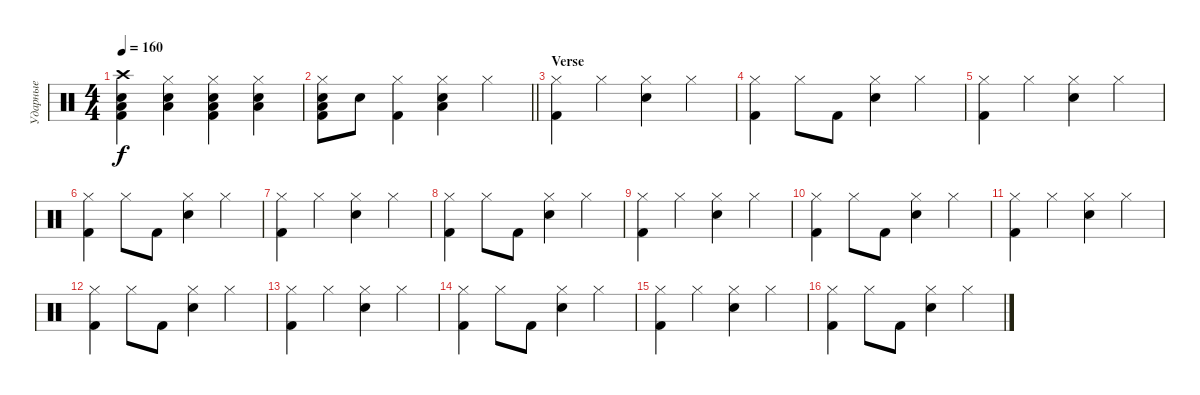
\track ("Ударные" "Ударные") {instrument percussion}
\staff {score}
\articulation defaults
\ts (4 4)
\tempo 160
\clef neutral
\ks c
("Crash high (hit)" "Kick (hit) 2" "Snare (hit) 2" "Low Floor Tom (hit)").4{dy f} ("Hi-Hat (closed)" "Snare (hit) 2" "Low Floor Tom (hit)").4 ("Hi-Hat (closed)" "Kick (hit) 2" "Snare (hit) 2" "Low Floor Tom (hit)").4 ("Hi-Hat (closed)" "Snare (hit) 2" "Low Floor Tom (hit)").4 |
\barLineRight lightlight
("Hi-Hat (closed)" "Kick (hit) 2" "Snare (hit) 2" "Low Floor Tom (hit)").8 "Snare (hit) 2".8 ("Hi-Hat (closed)" "Kick (hit) 2").4 ("Hi-Hat (closed)" "Snare (hit) 2" "Low Floor Tom (hit)").4 "Hi-Hat (closed)".4 |
\section ("" "Verse")
("Hi-Hat (closed)" "Kick (hit) 2").4 "Hi-Hat (closed)".4 ("Hi-Hat (closed)" "Snare (hit) 2").4 "Hi-Hat (closed)".4 |
("Hi-Hat (closed)" "Kick (hit) 2").4 "Hi-Hat (closed)".8 "Kick (hit) 2".8 ("Hi-Hat (closed)" "Snare (hit) 2").4 "Hi-Hat (closed)".4 |
("Hi-Hat (closed)" "Kick (hit) 2").4 "Hi-Hat (closed)".4 ("Hi-Hat (closed)" "Snare (hit) 2").4 "Hi-Hat (closed)".4 |
("Hi-Hat (closed)" "Kick (hit) 2").4 "Hi-Hat (closed)".8 "Kick (hit) 2".8 ("Hi-Hat (closed)" "Snare (hit) 2").4 "Hi-Hat (closed)".4 |
("Hi-Hat (closed)" "Kick (hit) 2").4 "Hi-Hat (closed)".4 ("Hi-Hat (closed)" "Snare (hit) 2").4 "Hi-Hat (closed)".4 |
("Hi-Hat (closed)" "Kick (hit) 2").4 "Hi-Hat (closed)".8 "Kick (hit) 2".8 ("Hi-Hat (closed)" "Snare (hit) 2").4 "Hi-Hat (closed)".4 |
("Hi-Hat (closed)" "Kick (hit) 2").4 "Hi-Hat (closed)".4 ("Hi-Hat (closed)" "Snare (hit) 2").4 "Hi-Hat (closed)".4 |
("Hi-Hat (closed)" "Kick (hit) 2").4 "Hi-Hat (closed)".8 "Kick (hit) 2".8 ("Hi-Hat (closed)" "Snare (hit) 2").4 "Hi-Hat (closed)".4 |
("Hi-Hat (closed)" "Kick (hit) 2").4 "Hi-Hat (closed)".4 ("Hi-Hat (closed)" "Snare (hit) 2").4 "Hi-Hat (closed)".4 |
("Hi-Hat (closed)" "Kick (hit) 2").4 "Hi-Hat (closed)".8 "Kick (hit) 2".8 ("Hi-Hat (closed)" "Snare (hit) 2").4 "Hi-Hat (closed)".4 |
("Hi-Hat (closed)" "Kick (hit) 2").4 "Hi-Hat (closed)".4 ("Hi-Hat (closed)" "Snare (hit) 2").4 "Hi-Hat (closed)".4 |
("Hi-Hat (closed)" "Kick (hit) 2").4 "Hi-Hat (closed)".8 "Kick (hit) 2".8 ("Hi-Hat (closed)" "Snare (hit) 2").4 "Hi-Hat (closed)".4 |
("Hi-Hat (closed)" "Kick (hit) 2").4 "Hi-Hat (closed)".4 ("Hi-Hat (closed)" "Snare (hit) 2").4 "Hi-Hat (closed)".4 |
("Hi-Hat (closed)" "Kick (hit) 2").4 "Hi-Hat (closed)".8 "Kick (hit) 2".8 ("Hi-Hat (closed)" "Snare (hit) 2").4 "Hi-Hat (closed)".4
